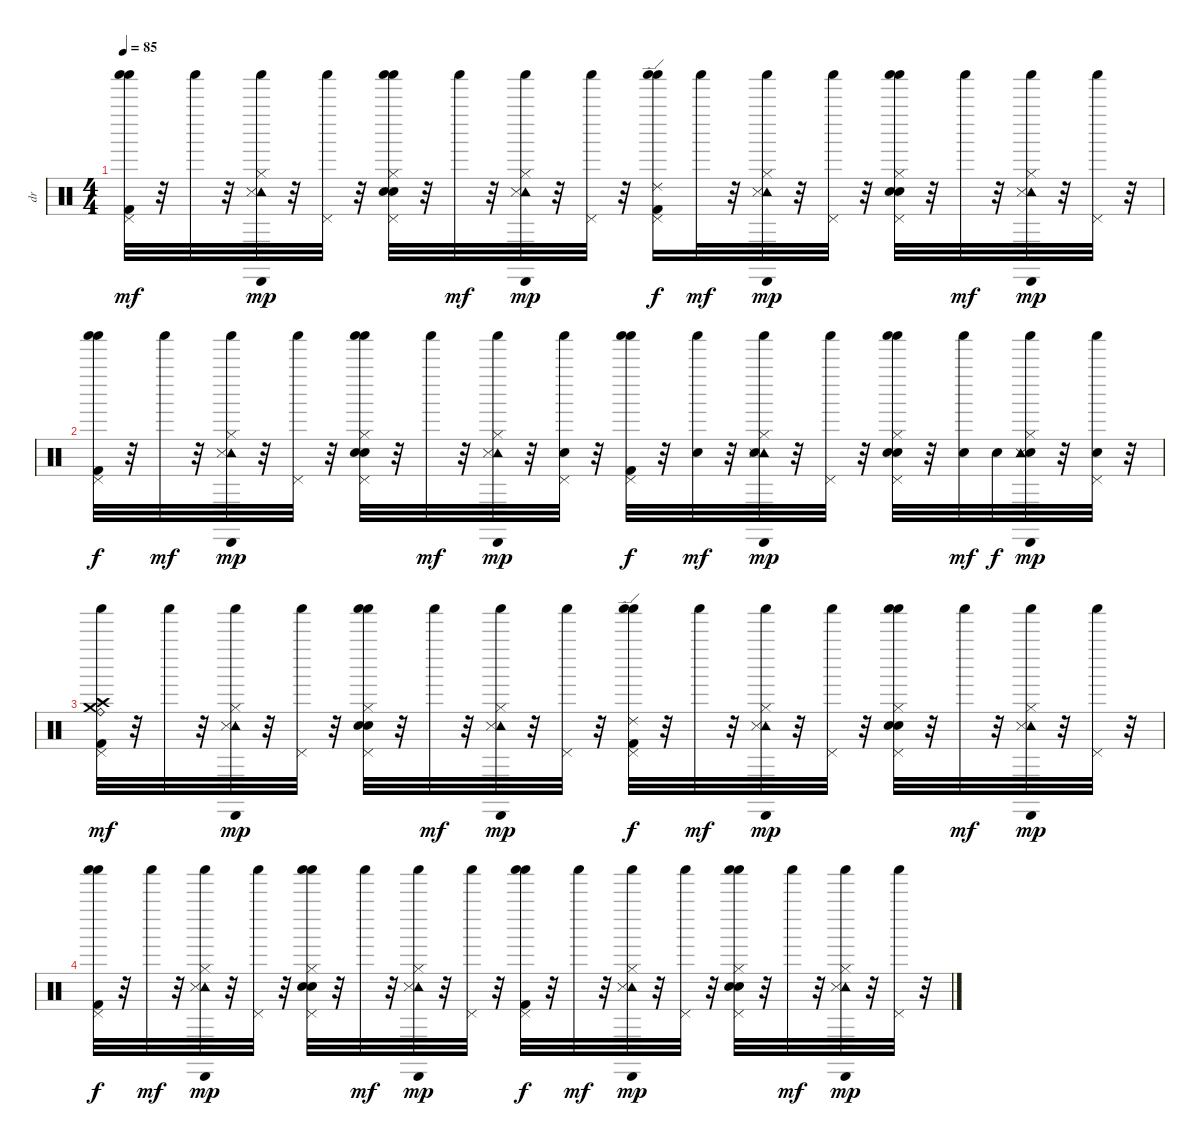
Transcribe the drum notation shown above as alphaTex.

\track ("dr" "dr") {instrument percussion}
\staff {score}
\articulation defaults
\ts (4 4)
\tempo 85
\clef neutral
\ks c
("Pedal Hi-Hat (hit)" "Shaker (hit)" "Shaker (hit)" "Kick (hit) 2").32{dy mf} r.32 "Shaker (hit)".32 r.32 ("Hi-Hat (closed)" "Cabasa (hit)" "Tambourine (hit)" "Shaker (hit)" "Snare (side stick) 3").32{dy mp} r.32 ("Pedal Hi-Hat (hit)" "Shaker (hit)").32 r.32 ("Electric Snare (hit)" "Pedal Hi-Hat (hit)" "Shaker (hit)" "Shaker (hit)" "Hi-Hat (closed)" "Snare (hit) 2").32 r.32 "Shaker (hit)".32{dy mf} r.32 ("Hi-Hat (closed)" "Tambourine (hit)" "Cabasa (hit)" "Shaker (hit)" "Snare (side stick) 3").32{dy mp} r.32 ("Pedal Hi-Hat (hit)" "Shaker (hit)").32 r.32 ("Pedal Hi-Hat (hit)" "Shaker (hit)" "Shaker (hit)" "Kick (hit) 2" "Ride (edge) 2").16{dy f} "Shaker (hit)".32{dy mf} r.32 ("Hi-Hat (closed)" "Cabasa (hit)" "Tambourine (hit)" "Shaker (hit)" "Snare (side stick) 3").32{dy mp} r.32 ("Pedal Hi-Hat (hit)" "Shaker (hit)").32 r.32 ("Electric Snare (hit)" "Pedal Hi-Hat (hit)" "Shaker (hit)" "Shaker (hit)" "Hi-Hat (closed)" "Snare (hit) 2").32 r.32 "Shaker (hit)".32{dy mf} r.32 ("Hi-Hat (closed)" "Cabasa (hit)" "Tambourine (hit)" "Shaker (hit)" "Snare (side stick) 3").32{dy mp} r.32 ("Pedal Hi-Hat (hit)" "Shaker (hit)").32 r.32 |
("Pedal Hi-Hat (hit)" "Shaker (hit)" "Shaker (hit)" "Kick (hit) 2").32{dy f} r.32 "Shaker (hit)".32{dy mf} r.32 ("Hi-Hat (closed)" "Cabasa (hit)" "Tambourine (hit)" "Shaker (hit)" "Snare (side stick) 3").32{dy mp} r.32 ("Pedal Hi-Hat (hit)" "Shaker (hit)").32 r.32 ("Pedal Hi-Hat (hit)" "Shaker (hit)" "Shaker (hit)" "Hi-Hat (closed)" "Electric Snare (hit)" "Snare (hit) 2").32 r.32 "Shaker (hit)".32{dy mf} r.32 ("Hi-Hat (closed)" "Cabasa (hit)" "Tambourine (hit)" "Shaker (hit)" "Snare (side stick) 3").32{dy mp} r.32 ("Pedal Hi-Hat (hit)" "Shaker (hit)" "Snare (hit) 2").32 r.32 ("Pedal Hi-Hat (hit)" "Shaker (hit)" "Shaker (hit)" "Kick (hit) 2").32{dy f} r.32 ("Shaker (hit)" "Snare (hit) 2").32{dy mf} r.32 ("Hi-Hat (closed)" "Cabasa (hit)" "Tambourine (hit)" "Shaker (hit)" "Snare (hit) 2" "Snare (side stick) 3").32{dy mp} r.32 ("Pedal Hi-Hat (hit)" "Shaker (hit)").32 r.32 ("Electric Snare (hit)" "Pedal Hi-Hat (hit)" "Shaker (hit)" "Shaker (hit)" "Hi-Hat (closed)" "Snare (hit) 2").32 r.32 ("Shaker (hit)" "Snare (hit) 2").32{dy mf} "Snare (hit) 2".32{dy f} ("Snare (hit) 2" "Hi-Hat (closed)" "Cabasa (hit)" "Tambourine (hit)" "Shaker (hit)" "Snare (side stick) 3").32{dy mp} r.32 ("Pedal Hi-Hat (hit)" "Shaker (hit)" "Snare (hit) 2").32 r.32 |
("Kick (hit) 2" "Crash high (hit)" "Ride (bell)" "Crash medium (hit)" "Pedal Hi-Hat (hit)" "Shaker (hit)").32{dy mf} r.32 "Shaker (hit)".32 r.32 ("Hi-Hat (closed)" "Tambourine (hit)" "Cabasa (hit)" "Shaker (hit)" "Snare (side stick) 3").32{dy mp} r.32 ("Pedal Hi-Hat (hit)" "Shaker (hit)").32 r.32 ("Electric Snare (hit)" "Pedal Hi-Hat (hit)" "Shaker (hit)" "Shaker (hit)" "Hi-Hat (closed)" "Snare (hit) 2").32 r.32 "Shaker (hit)".32{dy mf} r.32 ("Hi-Hat (closed)" "Tambourine (hit)" "Cabasa (hit)" "Shaker (hit)" "Snare (side stick) 3").32{dy mp} r.32 ("Pedal Hi-Hat (hit)" "Shaker (hit)").32 r.32 ("Pedal Hi-Hat (hit)" "Shaker (hit)" "Shaker (hit)" "Kick (hit) 2" "Ride (edge) 2").32{dy f} r.32 "Shaker (hit)".32{dy mf} r.32 ("Hi-Hat (closed)" "Tambourine (hit)" "Cabasa (hit)" "Shaker (hit)" "Snare (side stick) 3").32{dy mp} r.32 ("Pedal Hi-Hat (hit)" "Shaker (hit)").32 r.32 ("Electric Snare (hit)" "Pedal Hi-Hat (hit)" "Shaker (hit)" "Shaker (hit)" "Hi-Hat (closed)" "Snare (hit) 2").32 r.32 "Shaker (hit)".32{dy mf} r.32 ("Hi-Hat (closed)" "Tambourine (hit)" "Cabasa (hit)" "Shaker (hit)" "Snare (side stick) 3").32{dy mp} r.32 ("Pedal Hi-Hat (hit)" "Shaker (hit)").32 r.32 |
("Pedal Hi-Hat (hit)" "Shaker (hit)" "Shaker (hit)" "Kick (hit) 2").32{dy f volume 12} r.32 "Shaker (hit)".32{dy mf volume 12} r.32 ("Hi-Hat (closed)" "Tambourine (hit)" "Cabasa (hit)" "Shaker (hit)" "Snare (side stick) 3").32{dy mp volume 12} r.32 ("Pedal Hi-Hat (hit)" "Shaker (hit)").32{volume 12} r.32 ("Electric Snare (hit)" "Pedal Hi-Hat (hit)" "Shaker (hit)" "Shaker (hit)" "Hi-Hat (closed)" "Snare (hit) 2").32{volume 11} r.32 "Shaker (hit)".32{dy mf volume 11} r.32 ("Hi-Hat (closed)" "Tambourine (hit)" "Cabasa (hit)" "Shaker (hit)" "Snare (side stick) 3").32{dy mp volume 11} r.32 ("Pedal Hi-Hat (hit)" "Shaker (hit)").32{volume 11} r.32 ("Pedal Hi-Hat (hit)" "Shaker (hit)" "Shaker (hit)" "Kick (hit) 2").32{dy f volume 11} r.32 "Shaker (hit)".32{dy mf volume 11} r.32 ("Hi-Hat (closed)" "Tambourine (hit)" "Cabasa (hit)" "Shaker (hit)" "Snare (side stick) 3").32{dy mp volume 11} r.32 ("Pedal Hi-Hat (hit)" "Shaker (hit)").32{volume 11} r.32 ("Electric Snare (hit)" "Pedal Hi-Hat (hit)" "Shaker (hit)" "Shaker (hit)" "Hi-Hat (closed)" "Snare (hit) 2").32{volume 11} r.32 "Shaker (hit)".32{dy mf volume 11} r.32 ("Hi-Hat (closed)" "Tambourine (hit)" "Cabasa (hit)" "Shaker (hit)" "Snare (side stick) 3").32{dy mp volume 10} r.32 ("Pedal Hi-Hat (hit)" "Shaker (hit)").32{volume 10} r.32
